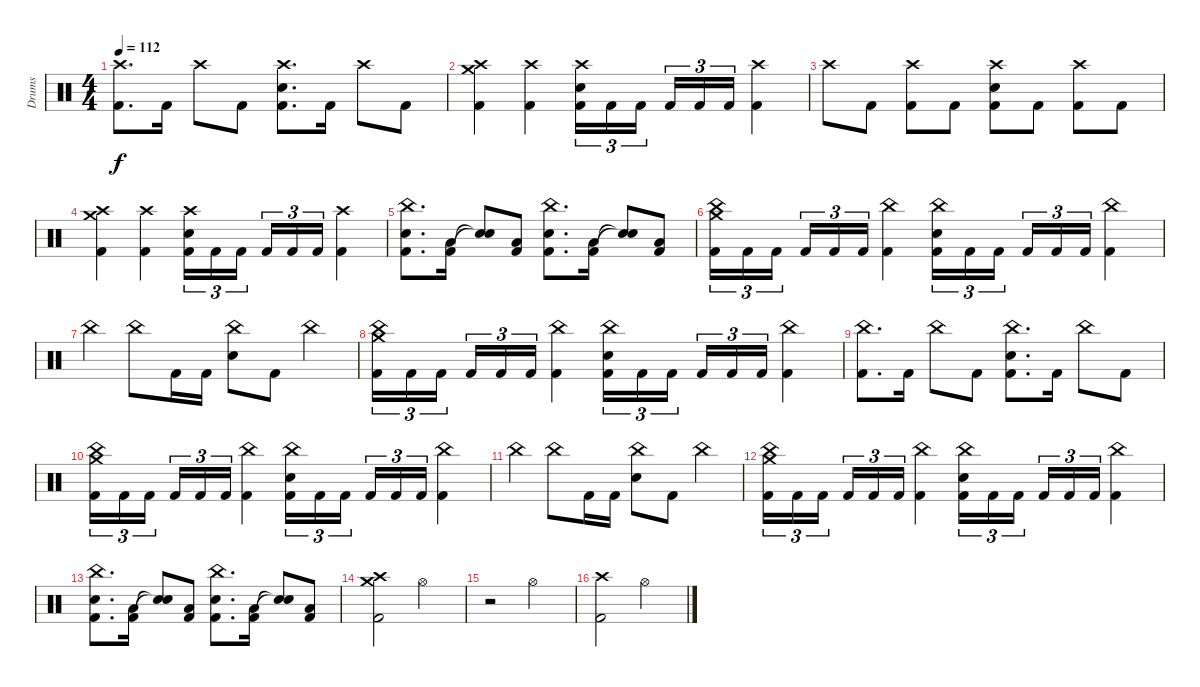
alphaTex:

\track ("Drums" "Drums") {instrument percussion}
\staff {score}
\articulation defaults
\ts (4 4)
\tempo 112
\clef neutral
\ks c
("Crash high (hit)" "Kick (hit) 2").8{d dy f} "Kick (hit) 2".16 "Crash high (hit)".8 "Kick (hit) 2".8 ("Crash high (hit)" "Electric Snare (hit)" "Kick (hit) 2").8{d} "Kick (hit) 2".16 "Crash high (hit)".8 "Kick (hit) 2".8 |
("Crash high (hit)" "Crash medium (hit)" "Kick (hit) 2").4 ("Crash high (hit)" "Kick (hit) 2").4 ("Crash high (hit)" "Electric Snare (hit)" "Kick (hit) 2").16{tu (3 2)} "Kick (hit) 2".16{tu (3 2)} "Kick (hit) 2".16{tu (3 2) beam splitsecondary} "Kick (hit) 2".16{tu (3 2)} "Kick (hit) 2".16{tu (3 2)} "Kick (hit) 2".16{tu (3 2)} ("Crash high (hit)" "Kick (hit) 2").4 |
"Crash high (hit)".8 "Kick (hit) 2".8 ("Crash high (hit)" "Kick (hit) 2").8 "Kick (hit) 2".8 ("Crash high (hit)" "Electric Snare (hit)" "Kick (hit) 2").8 "Kick (hit) 2".8 ("Crash high (hit)" "Kick (hit) 2").8 "Kick (hit) 2".8 |
("Crash high (hit)" "Crash medium (hit)" "Kick (hit) 2").4 ("Crash high (hit)" "Kick (hit) 2").4 ("Crash high (hit)" "Electric Snare (hit)" "Kick (hit) 2").16{tu (3 2)} "Kick (hit) 2".16{tu (3 2)} "Kick (hit) 2".16{tu (3 2) beam splitsecondary} "Kick (hit) 2".16{tu (3 2)} "Kick (hit) 2".16{tu (3 2)} "Kick (hit) 2".16{tu (3 2)} ("Crash high (hit)" "Kick (hit) 2").4 |
("China (hit)" "Electric Snare (hit)" "Kick (hit) 2").8{d} ("Low Floor Tom (hit)" "Kick (hit) 2").16 ("Snare (hit)"{t} "Snare (hit)"{t}).8 ("Low Floor Tom (hit)" "Kick (hit) 2").8 ("China (hit)" "Electric Snare (hit)" "Kick (hit) 2").8{d} ("Low Floor Tom (hit)" "Kick (hit) 2").16 ("Snare (hit)"{t} "Snare (hit)"{t}).8 ("Low Floor Tom (hit)" "Kick (hit) 2").8 |
("Crash medium (hit)" "China (hit)" "Kick (hit) 2").16{tu (3 2)} "Kick (hit) 2".16{tu (3 2)} "Kick (hit) 2".16{tu (3 2) beam splitsecondary} "Kick (hit) 2".16{tu (3 2)} "Kick (hit) 2".16{tu (3 2)} "Kick (hit) 2".16{tu (3 2)} ("China (hit)" "Kick (hit) 2").4 ("China (hit)" "Electric Snare (hit)" "Kick (hit) 2").16{tu (3 2)} "Kick (hit) 2".16{tu (3 2)} "Kick (hit) 2".16{tu (3 2) beam splitsecondary} "Kick (hit) 2".16{tu (3 2)} "Kick (hit) 2".16{tu (3 2)} "Kick (hit) 2".16{tu (3 2)} ("China (hit)" "Kick (hit) 2").4 |
"China (hit)".4 "China (hit)".8 "Kick (hit) 2".16 "Kick (hit) 2".16 ("China (hit)" "Electric Snare (hit)").8 "Kick (hit) 2".8 "China (hit)".4 |
("Crash medium (hit)" "China (hit)" "Kick (hit) 2").16{tu (3 2)} "Kick (hit) 2".16{tu (3 2)} "Kick (hit) 2".16{tu (3 2) beam splitsecondary} "Kick (hit) 2".16{tu (3 2)} "Kick (hit) 2".16{tu (3 2)} "Kick (hit) 2".16{tu (3 2)} ("China (hit)" "Kick (hit) 2").4 ("China (hit)" "Electric Snare (hit)" "Kick (hit) 2").16{tu (3 2)} "Kick (hit) 2".16{tu (3 2)} "Kick (hit) 2".16{tu (3 2) beam splitsecondary} "Kick (hit) 2".16{tu (3 2)} "Kick (hit) 2".16{tu (3 2)} "Kick (hit) 2".16{tu (3 2)} ("China (hit)" "Kick (hit) 2").4 |
("China (hit)" "Kick (hit) 2").8{d} "Kick (hit) 2".16 "China (hit)".8 "Kick (hit) 2".8 ("China (hit)" "Electric Snare (hit)" "Kick (hit) 2").8{d} "Kick (hit) 2".16 "China (hit)".8 "Kick (hit) 2".8 |
("Crash medium (hit)" "China (hit)" "Kick (hit) 2").16{tu (3 2)} "Kick (hit) 2".16{tu (3 2)} "Kick (hit) 2".16{tu (3 2) beam splitsecondary} "Kick (hit) 2".16{tu (3 2)} "Kick (hit) 2".16{tu (3 2)} "Kick (hit) 2".16{tu (3 2)} ("China (hit)" "Kick (hit) 2").4 ("China (hit)" "Electric Snare (hit)" "Kick (hit) 2").16{tu (3 2)} "Kick (hit) 2".16{tu (3 2)} "Kick (hit) 2".16{tu (3 2) beam splitsecondary} "Kick (hit) 2".16{tu (3 2)} "Kick (hit) 2".16{tu (3 2)} "Kick (hit) 2".16{tu (3 2)} ("China (hit)" "Kick (hit) 2").4 |
"China (hit)".4 "China (hit)".8 "Kick (hit) 2".16 "Kick (hit) 2".16 ("China (hit)" "Electric Snare (hit)").8 "Kick (hit) 2".8 "China (hit)".4 |
("Crash medium (hit)" "China (hit)" "Kick (hit) 2").16{tu (3 2)} "Kick (hit) 2".16{tu (3 2)} "Kick (hit) 2".16{tu (3 2) beam splitsecondary} "Kick (hit) 2".16{tu (3 2)} "Kick (hit) 2".16{tu (3 2)} "Kick (hit) 2".16{tu (3 2)} ("China (hit)" "Kick (hit) 2").4 ("China (hit)" "Electric Snare (hit)" "Kick (hit) 2").16{tu (3 2)} "Kick (hit) 2".16{tu (3 2)} "Kick (hit) 2".16{tu (3 2) beam splitsecondary} "Kick (hit) 2".16{tu (3 2)} "Kick (hit) 2".16{tu (3 2)} "Kick (hit) 2".16{tu (3 2)} ("China (hit)" "Kick (hit) 2").4 |
("China (hit)" "Electric Snare (hit)" "Kick (hit) 2").8{d} ("Low Floor Tom (hit)" "Kick (hit) 2").16 ("Snare (hit)"{t} "Snare (hit)"{t}).8 ("Low Floor Tom (hit)" "Kick (hit) 2").8 ("China (hit)" "Electric Snare (hit)" "Kick (hit) 2").8{d} ("Low Floor Tom (hit)" "Kick (hit) 2").16 ("Snare (hit)"{t} "Snare (hit)"{t}).8 ("Low Floor Tom (hit)" "Kick (hit) 2").8 |
("Crash high (hit)" "Crash medium (hit)" "Kick (hit) 2").2 "Hi-Hat (open)".2 |
r.2 "Hi-Hat (open)".2 |
("Crash high (hit)" "Kick (hit) 2").2 "Hi-Hat (open)".2
